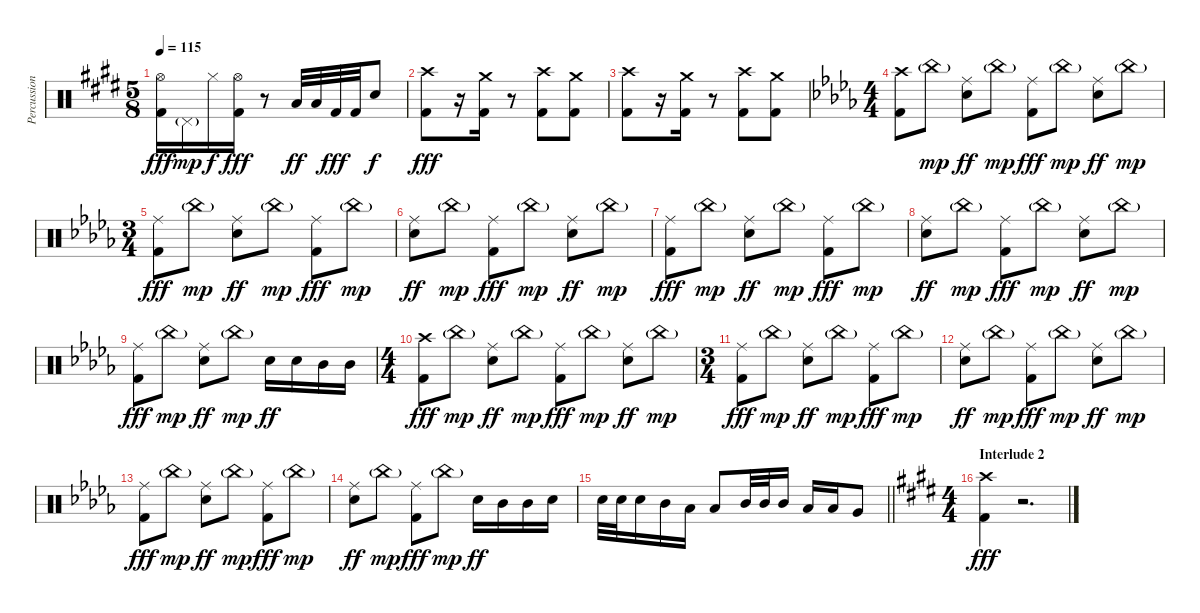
\track ("Percussion" "Percussion") {instrument percussion}
\staff {score}
\articulation defaults
\ts (5 8)
\tempo 115
\clef neutral
\ks c#minor
("Hi-Hat (open)" "Kick (hit) 2").16{dy fff} "Pedal Hi-Hat (hit)"{g}.16{dy mp} "Hi-Hat (closed)".16{dy f} ("Hi-Hat (open)" "Kick (hit) 2").16{dy fff} r.8 "Low Tom (hit)".32{dy ff} "Low Tom (hit)".32 "Kick (hit) 2".32{dy fff} "Kick (hit) 2".32 "Electric Snare (hit)".8{dy f} |
("Crash high (hit)" "Kick (hit) 2").8{dy fff} r.16 ("Crash medium (hit)" "Kick (hit) 2").16 r.8 ("Crash high (hit)" "Kick (hit) 2").8 ("Crash medium (hit)" "Kick (hit) 2").8 |
("Crash high (hit)" "Kick (hit) 2").8 r.16 ("Crash medium (hit)" "Kick (hit) 2").16 r.8 ("Crash high (hit)" "Kick (hit) 2").8 ("Crash medium (hit)" "Kick (hit) 2").8 |
\ts (4 4)
\ks bbminor
("Crash high (hit)" "Kick (hit) 2").8 "China (hit)"{g}.8{dy mp} ("Ride (middle)" "Electric Snare (hit)").8{dy ff} "China (hit)"{g}.8{dy mp} ("Ride (middle)" "Kick (hit) 2").8{dy fff} "China (hit)"{g}.8{dy mp} ("Ride (middle)" "Electric Snare (hit)").8{dy ff} "China (hit)"{g}.8{dy mp} |
\ts (3 4)
("Ride (middle)" "Kick (hit) 2").8{dy fff} "China (hit)"{g}.8{dy mp} ("Ride (middle)" "Electric Snare (hit)").8{dy ff} "China (hit)"{g}.8{dy mp} ("Ride (middle)" "Kick (hit) 2").8{dy fff} "China (hit)"{g}.8{dy mp} |
("Ride (middle)" "Electric Snare (hit)").8{dy ff} "China (hit)"{g}.8{dy mp} ("Ride (middle)" "Kick (hit) 2").8{dy fff} "China (hit)"{g}.8{dy mp} ("Ride (middle)" "Electric Snare (hit)").8{dy ff} "China (hit)"{g}.8{dy mp} |
("Ride (middle)" "Kick (hit) 2").8{dy fff} "China (hit)"{g}.8{dy mp} ("Ride (middle)" "Electric Snare (hit)").8{dy ff} "China (hit)"{g}.8{dy mp} ("Ride (middle)" "Kick (hit) 2").8{dy fff} "China (hit)"{g}.8{dy mp} |
("Ride (middle)" "Electric Snare (hit)").8{dy ff} "China (hit)"{g}.8{dy mp} ("Ride (middle)" "Kick (hit) 2").8{dy fff} "China (hit)"{g}.8{dy mp} ("Ride (middle)" "Electric Snare (hit)").8{dy ff} "China (hit)"{g}.8{dy mp} |
("Ride (middle)" "Kick (hit) 2").8{dy fff} "China (hit)"{g}.8{dy mp} ("Ride (middle)" "Electric Snare (hit)").8{dy ff} "China (hit)"{g}.8{dy mp} "Electric Snare (hit)".16{dy ff} "Electric Snare (hit)".16 "Mid Tom (hit)".16 "Mid Tom (hit)".16 |
\ts (4 4)
("Crash high (hit)" "Kick (hit) 2").8{dy fff} "China (hit)"{g}.8{dy mp} ("Ride (middle)" "Electric Snare (hit)").8{dy ff} "China (hit)"{g}.8{dy mp} ("Ride (middle)" "Kick (hit) 2").8{dy fff} "China (hit)"{g}.8{dy mp} ("Ride (middle)" "Electric Snare (hit)").8{dy ff} "China (hit)"{g}.8{dy mp} |
\ts (3 4)
("Ride (middle)" "Kick (hit) 2").8{dy fff} "China (hit)"{g}.8{dy mp} ("Ride (middle)" "Electric Snare (hit)").8{dy ff} "China (hit)"{g}.8{dy mp} ("Ride (middle)" "Kick (hit) 2").8{dy fff} "China (hit)"{g}.8{dy mp} |
("Ride (middle)" "Electric Snare (hit)").8{dy ff} "China (hit)"{g}.8{dy mp} ("Ride (middle)" "Kick (hit) 2").8{dy fff} "China (hit)"{g}.8{dy mp} ("Ride (middle)" "Electric Snare (hit)").8{dy ff} "China (hit)"{g}.8{dy mp} |
("Ride (middle)" "Kick (hit) 2").8{dy fff} "China (hit)"{g}.8{dy mp} ("Ride (middle)" "Electric Snare (hit)").8{dy ff} "China (hit)"{g}.8{dy mp} ("Ride (middle)" "Kick (hit) 2").8{dy fff} "China (hit)"{g}.8{dy mp} |
("Ride (middle)" "Electric Snare (hit)").8{dy ff} "China (hit)"{g}.8{dy mp} ("Ride (middle)" "Kick (hit) 2").8{dy fff} "China (hit)"{g}.8{dy mp} "Electric Snare (hit)".16{dy ff} "Mid Tom (hit)".16 "Mid Tom (hit)".16 "Electric Snare (hit)".16 |
\barLineRight lightlight "Electric Snare (hit)".32 "Electric Snare (hit)".32 "Electric Snare (hit)".16 "Mid Tom (hit)".16 "Low Tom (hit)".16 "Low Tom (hit)".8 "Mid Tom (hit)".32 "Mid Tom (hit)".32 "Mid Tom (hit)".16 "Low Tom (hit)".16 "Low Tom (hit)".16 "Very Low Tom (hit)".8
|
\ts (4 4)
\section ("" "Interlude 2")
\ks c#minor
("Crash high (hit)" "Kick (hit) 2").4{dy fff} r.2{d}
